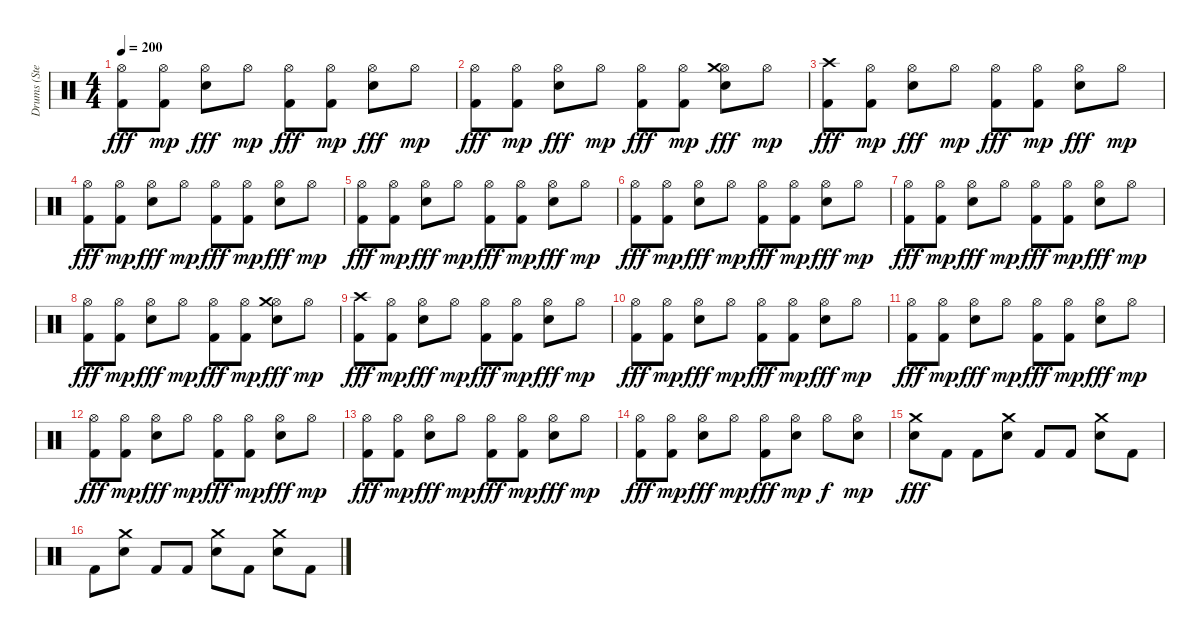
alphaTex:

\track ("Drums (Stevo32)" "Drums (Ste") {instrument percussion}
\staff {score}
\articulation defaults
\ts (4 4)
\tempo 200
\clef neutral
\ks c
("Kick (hit) 2" "Hi-Hat (open)").8{dy fff} ("Kick (hit) 2" "Hi-Hat (open)").8{dy mp} ("Electric Snare (hit)" "Hi-Hat (open)").8{dy fff} "Hi-Hat (open)".8{dy mp} ("Kick (hit) 2" "Hi-Hat (open)").8{dy fff} ("Kick (hit) 2" "Hi-Hat (open)").8{dy mp} ("Electric Snare (hit)" "Hi-Hat (open)").8{dy fff} "Hi-Hat (open)".8{dy mp} |
("Kick (hit) 2" "Hi-Hat (open)").8{dy fff} ("Kick (hit) 2" "Hi-Hat (open)").8{dy mp} ("Electric Snare (hit)" "Hi-Hat (open)").8{dy fff} "Hi-Hat (open)".8{dy mp} ("Kick (hit) 2" "Hi-Hat (open)").8{dy fff} ("Kick (hit) 2" "Hi-Hat (open)").8{dy mp} ("Electric Snare (hit)" "Hi-Hat (open)" "Crash medium (hit)").8{dy fff} "Hi-Hat (open)".8{dy mp} |
("Kick (hit) 2" "Crash high (hit)").8{dy fff} ("Kick (hit) 2" "Hi-Hat (open)").8{dy mp} ("Electric Snare (hit)" "Hi-Hat (open)").8{dy fff} "Hi-Hat (open)".8{dy mp} ("Kick (hit) 2" "Hi-Hat (open)").8{dy fff} ("Kick (hit) 2" "Hi-Hat (open)").8{dy mp} ("Electric Snare (hit)" "Hi-Hat (open)").8{dy fff} "Hi-Hat (open)".8{dy mp} |
("Kick (hit) 2" "Hi-Hat (open)").8{dy fff} ("Kick (hit) 2" "Hi-Hat (open)").8{dy mp} ("Electric Snare (hit)" "Hi-Hat (open)").8{dy fff} "Hi-Hat (open)".8{dy mp} ("Kick (hit) 2" "Hi-Hat (open)").8{dy fff} ("Kick (hit) 2" "Hi-Hat (open)").8{dy mp} ("Electric Snare (hit)" "Hi-Hat (open)").8{dy fff} "Hi-Hat (open)".8{dy mp} |
("Kick (hit) 2" "Hi-Hat (open)").8{dy fff} ("Kick (hit) 2" "Hi-Hat (open)").8{dy mp} ("Electric Snare (hit)" "Hi-Hat (open)").8{dy fff} "Hi-Hat (open)".8{dy mp} ("Kick (hit) 2" "Hi-Hat (open)").8{dy fff} ("Kick (hit) 2" "Hi-Hat (open)").8{dy mp} ("Electric Snare (hit)" "Hi-Hat (open)").8{dy fff} "Hi-Hat (open)".8{dy mp} |
("Kick (hit) 2" "Hi-Hat (open)").8{dy fff} ("Kick (hit) 2" "Hi-Hat (open)").8{dy mp} ("Electric Snare (hit)" "Hi-Hat (open)").8{dy fff} "Hi-Hat (open)".8{dy mp} ("Kick (hit) 2" "Hi-Hat (open)").8{dy fff} ("Kick (hit) 2" "Hi-Hat (open)").8{dy mp} ("Electric Snare (hit)" "Hi-Hat (open)").8{dy fff} "Hi-Hat (open)".8{dy mp} |
("Kick (hit) 2" "Hi-Hat (open)").8{dy fff} ("Kick (hit) 2" "Hi-Hat (open)").8{dy mp} ("Electric Snare (hit)" "Hi-Hat (open)").8{dy fff} "Hi-Hat (open)".8{dy mp} ("Kick (hit) 2" "Hi-Hat (open)").8{dy fff} ("Kick (hit) 2" "Hi-Hat (open)").8{dy mp} ("Electric Snare (hit)" "Hi-Hat (open)").8{dy fff} "Hi-Hat (open)".8{dy mp} |
("Kick (hit) 2" "Hi-Hat (open)").8{dy fff} ("Kick (hit) 2" "Hi-Hat (open)").8{dy mp} ("Electric Snare (hit)" "Hi-Hat (open)").8{dy fff} "Hi-Hat (open)".8{dy mp} ("Kick (hit) 2" "Hi-Hat (open)").8{dy fff} ("Kick (hit) 2" "Hi-Hat (open)").8{dy mp} ("Electric Snare (hit)" "Hi-Hat (open)" "Crash medium (hit)").8{dy fff} "Hi-Hat (open)".8{dy mp} |
("Kick (hit) 2" "Crash high (hit)").8{dy fff} ("Kick (hit) 2" "Hi-Hat (open)").8{dy mp} ("Electric Snare (hit)" "Hi-Hat (open)").8{dy fff} "Hi-Hat (open)".8{dy mp} ("Kick (hit) 2" "Hi-Hat (open)").8{dy fff} ("Kick (hit) 2" "Hi-Hat (open)").8{dy mp} ("Electric Snare (hit)" "Hi-Hat (open)").8{dy fff} "Hi-Hat (open)".8{dy mp} |
("Kick (hit) 2" "Hi-Hat (open)").8{dy fff} ("Kick (hit) 2" "Hi-Hat (open)").8{dy mp} ("Electric Snare (hit)" "Hi-Hat (open)").8{dy fff} "Hi-Hat (open)".8{dy mp} ("Kick (hit) 2" "Hi-Hat (open)").8{dy fff} ("Kick (hit) 2" "Hi-Hat (open)").8{dy mp} ("Electric Snare (hit)" "Hi-Hat (open)").8{dy fff} "Hi-Hat (open)".8{dy mp} |
("Kick (hit) 2" "Hi-Hat (open)").8{dy fff} ("Kick (hit) 2" "Hi-Hat (open)").8{dy mp} ("Electric Snare (hit)" "Hi-Hat (open)").8{dy fff} "Hi-Hat (open)".8{dy mp} ("Kick (hit) 2" "Hi-Hat (open)").8{dy fff} ("Kick (hit) 2" "Hi-Hat (open)").8{dy mp} ("Electric Snare (hit)" "Hi-Hat (open)").8{dy fff} "Hi-Hat (open)".8{dy mp} |
("Kick (hit) 2" "Hi-Hat (open)").8{dy fff} ("Kick (hit) 2" "Hi-Hat (open)").8{dy mp} ("Electric Snare (hit)" "Hi-Hat (open)").8{dy fff} "Hi-Hat (open)".8{dy mp} ("Kick (hit) 2" "Hi-Hat (open)").8{dy fff} ("Kick (hit) 2" "Hi-Hat (open)").8{dy mp} ("Electric Snare (hit)" "Hi-Hat (open)").8{dy fff} "Hi-Hat (open)".8{dy mp} |
("Kick (hit) 2" "Hi-Hat (open)").8{dy fff} ("Kick (hit) 2" "Hi-Hat (open)").8{dy mp} ("Electric Snare (hit)" "Hi-Hat (open)").8{dy fff} "Hi-Hat (open)".8{dy mp} ("Kick (hit) 2" "Hi-Hat (open)").8{dy fff} ("Kick (hit) 2" "Hi-Hat (open)").8{dy mp} ("Electric Snare (hit)" "Hi-Hat (open)").8{dy fff} "Hi-Hat (open)".8{dy mp} |
("Kick (hit) 2" "Hi-Hat (open)").8{dy fff} ("Kick (hit) 2" "Hi-Hat (open)").8{dy mp} ("Electric Snare (hit)" "Hi-Hat (open)").8{dy fff} "Hi-Hat (open)".8{dy mp} ("Kick (hit) 2" "Hi-Hat (open)").8{dy fff} ("Electric Snare (hit)" "Hi-Hat (open)").8{dy mp} "Hi-Hat (open)".8{dy f} ("Electric Snare (hit)" "Hi-Hat (open)").8{dy mp} |
("Electric Snare (hit)" "Crash medium (hit)").8{dy fff} "Kick (hit) 2".8 "Kick (hit) 2".8 ("Electric Snare (hit)" "Crash medium (hit)").8 "Kick (hit) 2".8 "Kick (hit) 2".8 ("Electric Snare (hit)" "Crash medium (hit)").8 "Kick (hit) 2".8 |
"Kick (hit) 2".8 ("Electric Snare (hit)" "Crash medium (hit)").8 "Kick (hit) 2".8 "Kick (hit) 2".8 ("Electric Snare (hit)" "Crash medium (hit)").8 "Kick (hit) 2".8 ("Electric Snare (hit)" "Crash medium (hit)").8 "Kick (hit) 2".8
